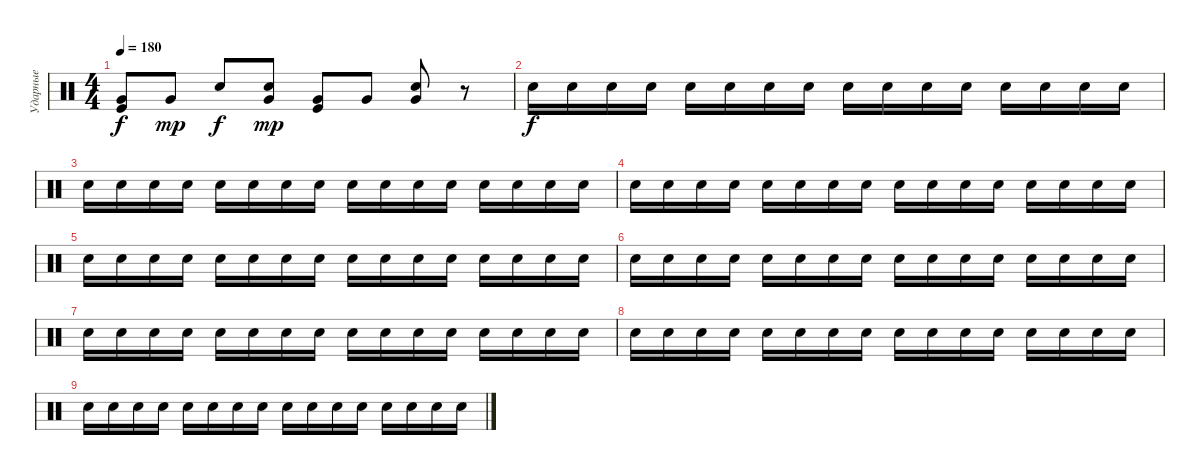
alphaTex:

\track ("Ударные" "Ударные") {instrument percussion}
\staff {score}
\articulation defaults
\ts (4 4)
\tempo 180
\clef neutral
\ks c
("Kick (hit)" "Very Low Tom (hit)").8{dy f} "Very Low Tom (hit)".8{dy mp} "Electric Snare (hit)".8{dy f} ("Electric Snare (hit)" "Very Low Tom (hit)").8{dy mp} ("Kick (hit)" "Very Low Tom (hit)").8 "Very Low Tom (hit)".8 ("Electric Snare (hit)" "Very Low Tom (hit)").8 r.8 |
"Electric Snare (hit)".16{dy f} "Electric Snare (hit)".16 "Electric Snare (hit)".16 "Electric Snare (hit)".16 "Electric Snare (hit)".16 "Electric Snare (hit)".16 "Electric Snare (hit)".16 "Electric Snare (hit)".16 "Electric Snare (hit)".16 "Electric Snare (hit)".16 "Electric Snare (hit)".16 "Electric Snare (hit)".16 "Electric Snare (hit)".16 "Electric Snare (hit)".16 "Electric Snare (hit)".16 "Electric Snare (hit)".16 |
"Electric Snare (hit)".16 "Electric Snare (hit)".16 "Electric Snare (hit)".16 "Electric Snare (hit)".16 "Electric Snare (hit)".16 "Electric Snare (hit)".16 "Electric Snare (hit)".16 "Electric Snare (hit)".16 "Electric Snare (hit)".16 "Electric Snare (hit)".16 "Electric Snare (hit)".16 "Electric Snare (hit)".16 "Electric Snare (hit)".16 "Electric Snare (hit)".16 "Electric Snare (hit)".16 "Electric Snare (hit)".16 |
"Electric Snare (hit)".16 "Electric Snare (hit)".16 "Electric Snare (hit)".16 "Electric Snare (hit)".16 "Electric Snare (hit)".16 "Electric Snare (hit)".16 "Electric Snare (hit)".16 "Electric Snare (hit)".16 "Electric Snare (hit)".16 "Electric Snare (hit)".16 "Electric Snare (hit)".16 "Electric Snare (hit)".16 "Electric Snare (hit)".16 "Electric Snare (hit)".16 "Electric Snare (hit)".16 "Electric Snare (hit)".16 |
"Electric Snare (hit)".16 "Electric Snare (hit)".16 "Electric Snare (hit)".16 "Electric Snare (hit)".16 "Electric Snare (hit)".16 "Electric Snare (hit)".16 "Electric Snare (hit)".16 "Electric Snare (hit)".16 "Electric Snare (hit)".16 "Electric Snare (hit)".16 "Electric Snare (hit)".16 "Electric Snare (hit)".16 "Electric Snare (hit)".16 "Electric Snare (hit)".16 "Electric Snare (hit)".16 "Electric Snare (hit)".16 |
"Electric Snare (hit)".16 "Electric Snare (hit)".16 "Electric Snare (hit)".16 "Electric Snare (hit)".16 "Electric Snare (hit)".16 "Electric Snare (hit)".16 "Electric Snare (hit)".16 "Electric Snare (hit)".16 "Electric Snare (hit)".16 "Electric Snare (hit)".16 "Electric Snare (hit)".16 "Electric Snare (hit)".16 "Electric Snare (hit)".16 "Electric Snare (hit)".16 "Electric Snare (hit)".16 "Electric Snare (hit)".16 |
"Electric Snare (hit)".16 "Electric Snare (hit)".16 "Electric Snare (hit)".16 "Electric Snare (hit)".16 "Electric Snare (hit)".16 "Electric Snare (hit)".16 "Electric Snare (hit)".16 "Electric Snare (hit)".16 "Electric Snare (hit)".16 "Electric Snare (hit)".16 "Electric Snare (hit)".16 "Electric Snare (hit)".16 "Electric Snare (hit)".16 "Electric Snare (hit)".16 "Electric Snare (hit)".16 "Electric Snare (hit)".16 |
"Electric Snare (hit)".16 "Electric Snare (hit)".16 "Electric Snare (hit)".16 "Electric Snare (hit)".16 "Electric Snare (hit)".16 "Electric Snare (hit)".16 "Electric Snare (hit)".16 "Electric Snare (hit)".16 "Electric Snare (hit)".16 "Electric Snare (hit)".16 "Electric Snare (hit)".16 "Electric Snare (hit)".16 "Electric Snare (hit)".16 "Electric Snare (hit)".16 "Electric Snare (hit)".16 "Electric Snare (hit)".16 |
"Electric Snare (hit)".16 "Electric Snare (hit)".16 "Electric Snare (hit)".16 "Electric Snare (hit)".16 "Electric Snare (hit)".16 "Electric Snare (hit)".16 "Electric Snare (hit)".16 "Electric Snare (hit)".16 "Electric Snare (hit)".16 "Electric Snare (hit)".16 "Electric Snare (hit)".16 "Electric Snare (hit)".16 "Electric Snare (hit)".16 "Electric Snare (hit)".16 "Electric Snare (hit)".16 "Electric Snare (hit)".16
